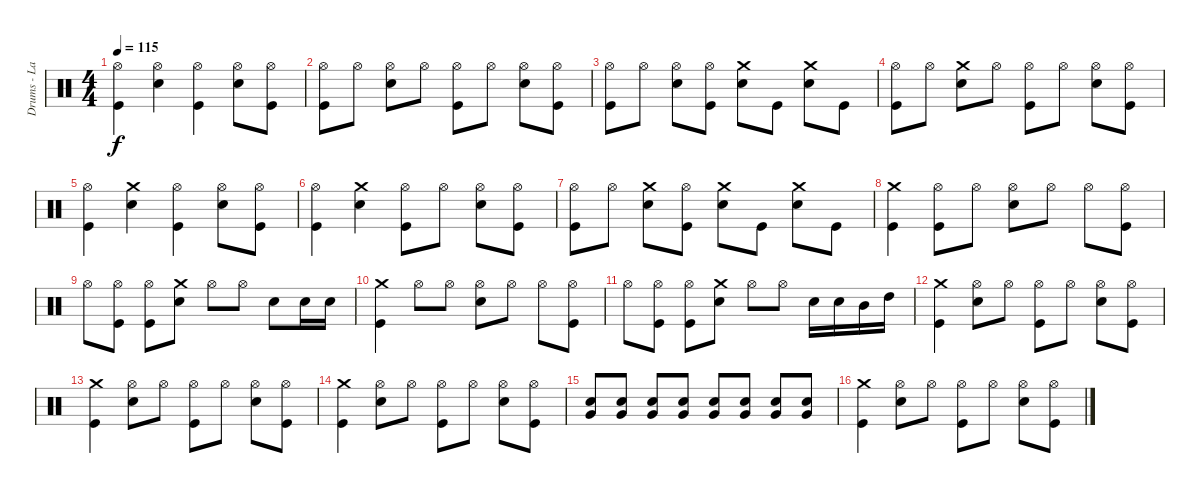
\track ("Drums - Lars Ulrich" "Drums - La") {instrument percussion}
\staff {score}
\articulation defaults
\ts (4 4)
\tempo 115
\clef neutral
\ks c
("Kick (hit)" "Hi-Hat (open)").4{dy f} ("Electric Snare (hit)" "Hi-Hat (open)").4 ("Kick (hit)" "Hi-Hat (open)").4 ("Electric Snare (hit)" "Hi-Hat (open)").8 ("Kick (hit)" "Hi-Hat (open)").8 |
("Kick (hit)" "Hi-Hat (open)").8 "Hi-Hat (open)".8 ("Electric Snare (hit)" "Hi-Hat (open)").8 "Hi-Hat (open)".8 ("Kick (hit)" "Hi-Hat (open)").8 "Hi-Hat (open)".8 ("Electric Snare (hit)" "Hi-Hat (open)").8 ("Kick (hit)" "Hi-Hat (open)").8 |
("Kick (hit)" "Hi-Hat (open)").8 "Hi-Hat (open)".8 ("Electric Snare (hit)" "Hi-Hat (open)").8 ("Kick (hit)" "Hi-Hat (open)").8 ("Electric Snare (hit)" "Crash medium (hit)").8 "Kick (hit)".8 ("Electric Snare (hit)" "Crash medium (hit)").8 "Kick (hit)".8 |
("Kick (hit)" "Hi-Hat (open)").8 "Hi-Hat (open)".8 ("Electric Snare (hit)" "Crash medium (hit)").8 "Hi-Hat (open)".8 ("Kick (hit)" "Hi-Hat (open)").8 "Hi-Hat (open)".8 ("Electric Snare (hit)" "Hi-Hat (open)").8 ("Kick (hit)" "Hi-Hat (open)").8 |
("Kick (hit)" "Hi-Hat (open)").4 ("Electric Snare (hit)" "Crash medium (hit)").4 ("Kick (hit)" "Hi-Hat (open)").4 ("Electric Snare (hit)" "Hi-Hat (open)").8 ("Kick (hit)" "Hi-Hat (open)").8 |
("Kick (hit)" "Hi-Hat (open)").4 ("Electric Snare (hit)" "Crash medium (hit)").4 ("Kick (hit)" "Hi-Hat (open)").8 "Hi-Hat (open)".8 ("Electric Snare (hit)" "Hi-Hat (open)").8 ("Kick (hit)" "Hi-Hat (open)").8 |
("Kick (hit)" "Hi-Hat (open)").8 "Hi-Hat (open)".8 ("Electric Snare (hit)" "Crash medium (hit)").8 ("Kick (hit)" "Hi-Hat (open)").8 ("Electric Snare (hit)" "Crash medium (hit)").8 "Kick (hit)".8 ("Electric Snare (hit)" "Crash medium (hit)").8 "Kick (hit)".8 |
("Kick (hit)" "Crash medium (hit)").4 ("Kick (hit)" "Hi-Hat (open)").8 "Hi-Hat (open)".8 ("Electric Snare (hit)" "Hi-Hat (open)").8 "Hi-Hat (open)".8 "Hi-Hat (open)".8 ("Kick (hit)" "Hi-Hat (open)").8 |
"Hi-Hat (open)".8 ("Kick (hit)" "Hi-Hat (open)").8 ("Kick (hit)" "Hi-Hat (open)").8 ("Electric Snare (hit)" "Crash medium (hit)").8 "Hi-Hat (open)".8 "Hi-Hat (open)".8 "Electric Snare (hit)".8 "Electric Snare (hit)".16 "Electric Snare (hit)".16 |
("Kick (hit)" "Crash medium (hit)").4 "Hi-Hat (open)".8 "Hi-Hat (open)".8 ("Electric Snare (hit)" "Hi-Hat (open)").8 "Hi-Hat (open)".8 "Hi-Hat (open)".8 ("Kick (hit)" "Hi-Hat (open)").8 |
"Hi-Hat (open)".8 ("Kick (hit)" "Hi-Hat (open)").8 ("Kick (hit)" "Hi-Hat (open)").8 ("Electric Snare (hit)" "Crash medium (hit)").8 "Hi-Hat (open)".8 "Hi-Hat (open)".8 "Electric Snare (hit)".16 "Electric Snare (hit)".16 "Mid Tom (hit)".16 "High Tom (hit)".16 |
("Kick (hit)" "Crash medium (hit)").4 ("Electric Snare (hit)" "Hi-Hat (open)").8 "Hi-Hat (open)".8 ("Kick (hit)" "Hi-Hat (open)").8 "Hi-Hat (open)".8 ("Electric Snare (hit)" "Hi-Hat (open)").8 ("Kick (hit)" "Hi-Hat (open)").8 |
("Kick (hit)" "Crash medium (hit)").4 ("Electric Snare (hit)" "Hi-Hat (open)").8 "Hi-Hat (open)".8 ("Kick (hit)" "Hi-Hat (open)").8 "Hi-Hat (open)".8 ("Electric Snare (hit)" "Hi-Hat (open)").8 ("Kick (hit)" "Hi-Hat (open)").8 |
("Kick (hit)" "Crash medium (hit)").4 ("Electric Snare (hit)" "Hi-Hat (open)").8 "Hi-Hat (open)".8 ("Kick (hit)" "Hi-Hat (open)").8 "Hi-Hat (open)".8 ("Electric Snare (hit)" "Hi-Hat (open)").8 ("Kick (hit)" "Hi-Hat (open)").8 |
("Electric Snare (hit)" "Very Low Tom (hit)").8 ("Electric Snare (hit)" "Very Low Tom (hit)").8 ("Electric Snare (hit)" "Very Low Tom (hit)").8 ("Electric Snare (hit)" "Very Low Tom (hit)").8 ("Electric Snare (hit)" "Very Low Tom (hit)").8 ("Electric Snare (hit)" "Very Low Tom (hit)").8 ("Electric Snare (hit)" "Very Low Tom (hit)").8 ("Electric Snare (hit)" "Very Low Tom (hit)").8 |
("Kick (hit)" "Crash medium (hit)").4 ("Electric Snare (hit)" "Hi-Hat (open)").8 "Hi-Hat (open)".8 ("Kick (hit)" "Hi-Hat (open)").8 "Hi-Hat (open)".8 ("Electric Snare (hit)" "Hi-Hat (open)").8 ("Kick (hit)" "Hi-Hat (open)").8
